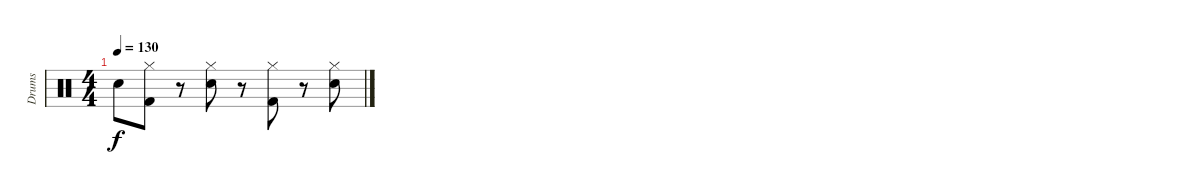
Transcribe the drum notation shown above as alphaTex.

\track ("Drums" "Drums") {instrument percussion}
\staff {score}
\articulation defaults
\ts (4 4)
\tempo 130
\clef neutral
\ks c "Snare (hit) 2".8{dy f}
("Hi-Hat (closed)" "Kick (hit) 2").8 r.8 ("Hi-Hat (closed)" "Snare (hit) 2").8 r.8 ("Hi-Hat (closed)" "Kick (hit) 2").8 r.8 ("Hi-Hat (closed)" "Snare (hit) 2").8
